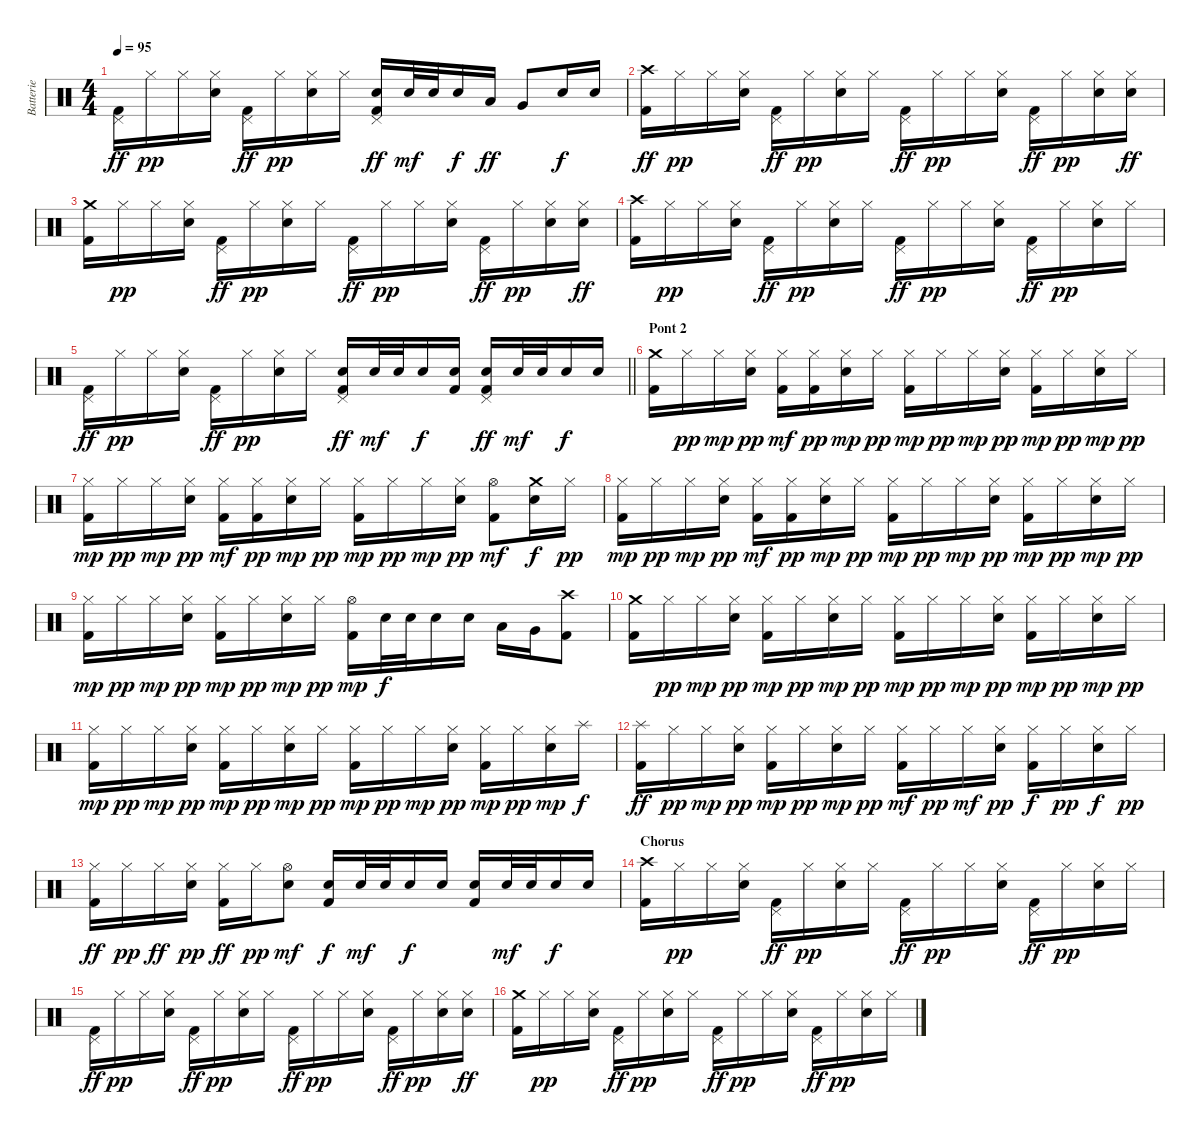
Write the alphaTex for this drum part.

\track ("Batterie" "Batterie") {instrument percussion}
\staff {score}
\articulation defaults
\ts (4 4)
\tempo 95
\clef neutral
\ks c
("Pedal Hi-Hat (hit)" "Kick (hit) 2").16{dy ff} "Hi-Hat (closed)".16{dy pp} "Hi-Hat (closed)".16 ("Hi-Hat (closed)" "Electric Snare (hit)").16 ("Pedal Hi-Hat (hit)" "Kick (hit) 2").16{dy ff} "Hi-Hat (closed)".16{dy pp} ("Hi-Hat (closed)" "Electric Snare (hit)").16 "Hi-Hat (closed)".16 ("Pedal Hi-Hat (hit)" "Electric Snare (hit)" "Kick (hit) 2").16{dy ff} "Electric Snare (hit)".32{dy mf} "Electric Snare (hit)".32 "Electric Snare (hit)".16{dy f} "Low Tom (hit)".16{dy ff} "Very Low Tom (hit)".8 "Electric Snare (hit)".16{dy f} "Electric Snare (hit)".16 |
("Crash high (hit)" "Kick (hit) 2").16{dy ff} "Hi-Hat (closed)".16{dy pp} "Hi-Hat (closed)".16 ("Hi-Hat (closed)" "Electric Snare (hit)").16 ("Pedal Hi-Hat (hit)" "Kick (hit) 2").16{dy ff} "Hi-Hat (closed)".16{dy pp} ("Hi-Hat (closed)" "Electric Snare (hit)").16 "Hi-Hat (closed)".16 ("Pedal Hi-Hat (hit)" "Kick (hit) 2").16{dy ff} "Hi-Hat (closed)".16{dy pp} "Hi-Hat (closed)".16 ("Hi-Hat (closed)" "Electric Snare (hit)").16 ("Pedal Hi-Hat (hit)" "Kick (hit) 2").16{dy ff} "Hi-Hat (closed)".16{dy pp} ("Hi-Hat (closed)" "Electric Snare (hit)").16 ("Hi-Hat (closed)" "Electric Snare (hit)").16{dy ff} |
("Crash medium (hit)" "Kick (hit) 2").16 "Hi-Hat (closed)".16{dy pp} "Hi-Hat (closed)".16 ("Hi-Hat (closed)" "Electric Snare (hit)").16 ("Pedal Hi-Hat (hit)" "Kick (hit) 2").16{dy ff} "Hi-Hat (closed)".16{dy pp} ("Hi-Hat (closed)" "Electric Snare (hit)").16 "Hi-Hat (closed)".16 ("Pedal Hi-Hat (hit)" "Kick (hit) 2").16{dy ff} "Hi-Hat (closed)".16{dy pp} "Hi-Hat (closed)".16 ("Hi-Hat (closed)" "Electric Snare (hit)").16 ("Pedal Hi-Hat (hit)" "Kick (hit) 2").16{dy ff} "Hi-Hat (closed)".16{dy pp} ("Hi-Hat (closed)" "Electric Snare (hit)").16 ("Hi-Hat (closed)" "Electric Snare (hit)").16{dy ff} |
("Crash high (hit)" "Kick (hit) 2").16 "Hi-Hat (closed)".16{dy pp} "Hi-Hat (closed)".16 ("Hi-Hat (closed)" "Electric Snare (hit)").16 ("Pedal Hi-Hat (hit)" "Kick (hit) 2").16{dy ff} "Hi-Hat (closed)".16{dy pp} ("Hi-Hat (closed)" "Electric Snare (hit)").16 "Hi-Hat (closed)".16 ("Pedal Hi-Hat (hit)" "Kick (hit) 2").16{dy ff} "Hi-Hat (closed)".16{dy pp} "Hi-Hat (closed)".16 ("Hi-Hat (closed)" "Electric Snare (hit)").16 ("Pedal Hi-Hat (hit)" "Kick (hit) 2").16{dy ff} "Hi-Hat (closed)".16{dy pp} ("Hi-Hat (closed)" "Electric Snare (hit)").16 "Hi-Hat (closed)".16 |
\barLineRight lightlight
("Pedal Hi-Hat (hit)" "Kick (hit) 2").16{dy ff} "Hi-Hat (closed)".16{dy pp} "Hi-Hat (closed)".16 ("Hi-Hat (closed)" "Electric Snare (hit)").16 ("Pedal Hi-Hat (hit)" "Kick (hit) 2").16{dy ff} "Hi-Hat (closed)".16{dy pp} ("Hi-Hat (closed)" "Electric Snare (hit)").16 "Hi-Hat (closed)".16 ("Pedal Hi-Hat (hit)" "Electric Snare (hit)" "Kick (hit) 2").16{dy ff} "Electric Snare (hit)".32{dy mf} "Electric Snare (hit)".32 "Electric Snare (hit)".16{dy f} ("Electric Snare (hit)" "Kick (hit) 2").16 ("Pedal Hi-Hat (hit)" "Electric Snare (hit)" "Kick (hit) 2").16{dy ff} "Electric Snare (hit)".32{dy mf} "Electric Snare (hit)".32 "Electric Snare (hit)".16{dy f} "Electric Snare (hit)".16 |
\section ("" "Pont 2")
("Crash medium (hit)" "Kick (hit) 2").16 "Hi-Hat (closed)".16{dy pp} "Hi-Hat (closed)".16{dy mp} ("Hi-Hat (closed)" "Electric Snare (hit)").16{dy pp} ("Hi-Hat (closed)" "Kick (hit) 2").16{dy mf} ("Hi-Hat (closed)" "Kick (hit) 2").16{dy pp} ("Hi-Hat (closed)" "Electric Snare (hit)").16{dy mp} "Hi-Hat (closed)".16{dy pp} ("Hi-Hat (closed)" "Kick (hit) 2").16{dy mp} "Hi-Hat (closed)".16{dy pp} "Hi-Hat (closed)".16{dy mp} ("Hi-Hat (closed)" "Electric Snare (hit)").16{dy pp} ("Hi-Hat (closed)" "Kick (hit) 2").16{dy mp} "Hi-Hat (closed)".16{dy pp} ("Hi-Hat (closed)" "Electric Snare (hit)").16{dy mp} "Hi-Hat (closed)".16{dy pp} |
("Hi-Hat (closed)" "Kick (hit) 2").16{dy mp} "Hi-Hat (closed)".16{dy pp} "Hi-Hat (closed)".16{dy mp} ("Hi-Hat (closed)" "Electric Snare (hit)").16{dy pp} ("Hi-Hat (closed)" "Kick (hit) 2").16{dy mf} ("Hi-Hat (closed)" "Kick (hit) 2").16{dy pp} ("Hi-Hat (closed)" "Electric Snare (hit)").16{dy mp} "Hi-Hat (closed)".16{dy pp} ("Hi-Hat (closed)" "Kick (hit) 2").16{dy mp} "Hi-Hat (closed)".16{dy pp} "Hi-Hat (closed)".16{dy mp} ("Hi-Hat (closed)" "Electric Snare (hit)").16{dy pp} ("Hi-Hat (open)" "Kick (hit) 2").8{dy mf} ("Crash medium (hit)" "Electric Snare (hit)").16{dy f} "Hi-Hat (closed)".16{dy pp} |
("Hi-Hat (closed)" "Kick (hit) 2").16{dy mp} "Hi-Hat (closed)".16{dy pp} "Hi-Hat (closed)".16{dy mp} ("Hi-Hat (closed)" "Electric Snare (hit)").16{dy pp} ("Hi-Hat (closed)" "Kick (hit) 2").16{dy mf} ("Hi-Hat (closed)" "Kick (hit) 2").16{dy pp} ("Hi-Hat (closed)" "Electric Snare (hit)").16{dy mp} "Hi-Hat (closed)".16{dy pp} ("Hi-Hat (closed)" "Kick (hit) 2").16{dy mp} "Hi-Hat (closed)".16{dy pp} "Hi-Hat (closed)".16{dy mp} ("Hi-Hat (closed)" "Electric Snare (hit)").16{dy pp} ("Hi-Hat (closed)" "Kick (hit) 2").16{dy mp} "Hi-Hat (closed)".16{dy pp} ("Hi-Hat (closed)" "Electric Snare (hit)").16{dy mp} "Hi-Hat (closed)".16{dy pp} |
("Hi-Hat (closed)" "Kick (hit) 2").16{dy mp} "Hi-Hat (closed)".16{dy pp} "Hi-Hat (closed)".16{dy mp} ("Hi-Hat (closed)" "Electric Snare (hit)").16{dy pp} ("Hi-Hat (closed)" "Kick (hit) 2").16{dy mp} "Hi-Hat (closed)".16{dy pp} ("Hi-Hat (closed)" "Electric Snare (hit)").16{dy mp} "Hi-Hat (closed)".16{dy pp} ("Hi-Hat (open)" "Kick (hit) 2").16{dy mp} "Electric Snare (hit)".32{dy f} "Electric Snare (hit)".32 "Electric Snare (hit)".16 "Electric Snare (hit)".16 "Low Tom (hit)".16 "Very Low Tom (hit)".16 ("Crash high (hit)" "Kick (hit) 2").8 |
("Crash medium (hit)" "Kick (hit) 2").16 "Hi-Hat (closed)".16{dy pp} "Hi-Hat (closed)".16{dy mp} ("Hi-Hat (closed)" "Electric Snare (hit)").16{dy pp} ("Hi-Hat (closed)" "Kick (hit) 2").16{dy mp} "Hi-Hat (closed)".16{dy pp} ("Hi-Hat (closed)" "Electric Snare (hit)").16{dy mp} "Hi-Hat (closed)".16{dy pp} ("Hi-Hat (closed)" "Kick (hit) 2").16{dy mp} "Hi-Hat (closed)".16{dy pp} "Hi-Hat (closed)".16{dy mp} ("Hi-Hat (closed)" "Electric Snare (hit)").16{dy pp} ("Hi-Hat (closed)" "Kick (hit) 2").16{dy mp} "Hi-Hat (closed)".16{dy pp} ("Hi-Hat (closed)" "Electric Snare (hit)").16{dy mp} "Hi-Hat (closed)".16{dy pp} |
("Hi-Hat (closed)" "Kick (hit) 2").16{dy mp} "Hi-Hat (closed)".16{dy pp} "Hi-Hat (closed)".16{dy mp} ("Hi-Hat (closed)" "Electric Snare (hit)").16{dy pp} ("Hi-Hat (closed)" "Kick (hit) 2").16{dy mp} "Hi-Hat (closed)".16{dy pp} ("Hi-Hat (closed)" "Electric Snare (hit)").16{dy mp} "Hi-Hat (closed)".16{dy pp} ("Hi-Hat (closed)" "Kick (hit) 2").16{dy mp} "Hi-Hat (closed)".16{dy pp} "Hi-Hat (closed)".16{dy mp} ("Hi-Hat (closed)" "Electric Snare (hit)").16{dy pp} ("Hi-Hat (closed)" "Kick (hit) 2").16{dy mp} "Hi-Hat (closed)".16{dy pp} ("Hi-Hat (closed)" "Electric Snare (hit)").16{dy mp} "Splash (hit)".16{dy f} |
("Splash (hit)" "Kick (hit) 2").16{dy ff} "Hi-Hat (closed)".16{dy pp} "Hi-Hat (closed)".16{dy mp} ("Hi-Hat (closed)" "Electric Snare (hit)").16{dy pp} ("Hi-Hat (closed)" "Kick (hit) 2").16{dy mp} "Hi-Hat (closed)".16{dy pp} ("Hi-Hat (closed)" "Electric Snare (hit)").16{dy mp} "Hi-Hat (closed)".16{dy pp} ("Hi-Hat (closed)" "Kick (hit) 2").16{dy mf} "Hi-Hat (closed)".16{dy pp} "Hi-Hat (closed)".16{dy mf} ("Hi-Hat (closed)" "Electric Snare (hit)").16{dy pp} ("Hi-Hat (closed)" "Kick (hit) 2").16{dy f} "Hi-Hat (closed)".16{dy pp} ("Hi-Hat (closed)" "Electric Snare (hit)").16{dy f} "Hi-Hat (closed)".16{dy pp} |
("Hi-Hat (closed)" "Kick (hit) 2").16{dy ff} "Hi-Hat (closed)".16{dy pp} "Hi-Hat (closed)".16{dy ff} ("Hi-Hat (closed)" "Electric Snare (hit)").16{dy pp} ("Hi-Hat (closed)" "Kick (hit) 2").16{dy ff} "Hi-Hat (closed)".16{dy pp} ("Hi-Hat (open)" "Electric Snare (hit)").8{dy mf} ("Electric Snare (hit)" "Kick (hit) 2").16{dy f} "Electric Snare (hit)".32{dy mf} "Electric Snare (hit)".32 "Electric Snare (hit)".16{dy f} "Electric Snare (hit)".16 ("Electric Snare (hit)" "Kick (hit) 2").16 "Electric Snare (hit)".32{dy mf} "Electric Snare (hit)".32 "Electric Snare (hit)".16{dy f} "Electric Snare (hit)".16 |
\section ("" "Chorus")
("Crash high (hit)" "Kick (hit) 2").16 "Hi-Hat (closed)".16{dy pp} "Hi-Hat (closed)".16 ("Hi-Hat (closed)" "Electric Snare (hit)").16 ("Pedal Hi-Hat (hit)" "Kick (hit) 2").16{dy ff} "Hi-Hat (closed)".16{dy pp} ("Hi-Hat (closed)" "Electric Snare (hit)").16 "Hi-Hat (closed)".16 ("Pedal Hi-Hat (hit)" "Kick (hit) 2").16{dy ff} "Hi-Hat (closed)".16{dy pp} "Hi-Hat (closed)".16 ("Hi-Hat (closed)" "Electric Snare (hit)").16 ("Pedal Hi-Hat (hit)" "Kick (hit) 2").16{dy ff} "Hi-Hat (closed)".16{dy pp} ("Hi-Hat (closed)" "Electric Snare (hit)").16 "Hi-Hat (closed)".16 |
("Pedal Hi-Hat (hit)" "Kick (hit) 2").16{dy ff} "Hi-Hat (closed)".16{dy pp} "Hi-Hat (closed)".16 ("Hi-Hat (closed)" "Electric Snare (hit)").16 ("Pedal Hi-Hat (hit)" "Kick (hit) 2").16{dy ff} "Hi-Hat (closed)".16{dy pp} ("Hi-Hat (closed)" "Electric Snare (hit)").16 "Hi-Hat (closed)".16 ("Pedal Hi-Hat (hit)" "Kick (hit) 2").16{dy ff} "Hi-Hat (closed)".16{dy pp} "Hi-Hat (closed)".16 ("Hi-Hat (closed)" "Electric Snare (hit)").16 ("Pedal Hi-Hat (hit)" "Kick (hit) 2").16{dy ff} "Hi-Hat (closed)".16{dy pp} ("Hi-Hat (closed)" "Electric Snare (hit)").16 ("Hi-Hat (closed)" "Electric Snare (hit)").16{dy ff} |
("Crash medium (hit)" "Kick (hit) 2").16 "Hi-Hat (closed)".16{dy pp} "Hi-Hat (closed)".16 ("Hi-Hat (closed)" "Electric Snare (hit)").16 ("Pedal Hi-Hat (hit)" "Kick (hit) 2").16{dy ff} "Hi-Hat (closed)".16{dy pp} ("Hi-Hat (closed)" "Electric Snare (hit)").16 "Hi-Hat (closed)".16 ("Pedal Hi-Hat (hit)" "Kick (hit) 2").16{dy ff} "Hi-Hat (closed)".16{dy pp} "Hi-Hat (closed)".16 ("Hi-Hat (closed)" "Electric Snare (hit)").16 ("Pedal Hi-Hat (hit)" "Kick (hit) 2").16{dy ff} "Hi-Hat (closed)".16{dy pp} ("Hi-Hat (closed)" "Electric Snare (hit)").16 "Hi-Hat (closed)".16
